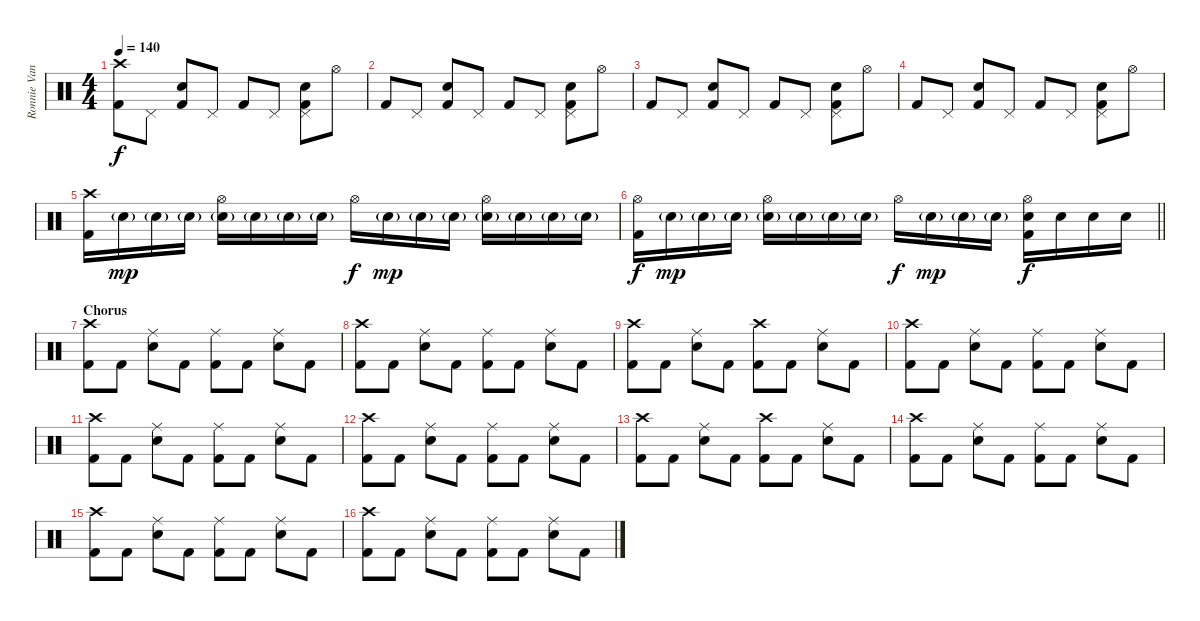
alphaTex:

\track ("Ronnie Vannucci Jr.'s drums" "Ronnie Van") {instrument percussion}
\staff {score}
\articulation defaults
\ts (4 4)
\tempo 140
\clef neutral
\ks c
("Crash high (hit)" "Kick (hit) 2").8{dy f} "Pedal Hi-Hat (hit)".8 ("Kick (hit) 2" "Electric Snare (hit)").8 "Pedal Hi-Hat (hit)".8 "Kick (hit) 2".8 "Pedal Hi-Hat (hit)".8 ("Pedal Hi-Hat (hit)" "Kick (hit) 2" "Electric Snare (hit)").8 "Hi-Hat (open)".8 |
"Kick (hit) 2".8 "Pedal Hi-Hat (hit)".8 ("Kick (hit) 2" "Electric Snare (hit)").8 "Pedal Hi-Hat (hit)".8 "Kick (hit) 2".8 "Pedal Hi-Hat (hit)".8 ("Pedal Hi-Hat (hit)" "Kick (hit) 2" "Electric Snare (hit)").8 "Hi-Hat (open)".8 |
"Kick (hit) 2".8 "Pedal Hi-Hat (hit)".8 ("Kick (hit) 2" "Electric Snare (hit)").8 "Pedal Hi-Hat (hit)".8 "Kick (hit) 2".8 "Pedal Hi-Hat (hit)".8 ("Pedal Hi-Hat (hit)" "Kick (hit) 2" "Electric Snare (hit)").8 "Hi-Hat (open)".8 |
"Kick (hit) 2".8 "Pedal Hi-Hat (hit)".8 ("Kick (hit) 2" "Electric Snare (hit)").8 "Pedal Hi-Hat (hit)".8 "Kick (hit) 2".8 "Pedal Hi-Hat (hit)".8 ("Pedal Hi-Hat (hit)" "Kick (hit) 2" "Electric Snare (hit)").8 "Hi-Hat (open)".8 |
("Crash high (hit)" "Kick (hit) 2").16 "Electric Snare (hit)"{g}.16{dy mp} "Electric Snare (hit)"{g}.16 "Electric Snare (hit)"{g}.16 ("Hi-Hat (open)" "Electric Snare (hit)"{g}).16 "Electric Snare (hit)"{g}.16 "Electric Snare (hit)"{g}.16 "Electric Snare (hit)"{g}.16 "Hi-Hat (open)".16{dy f} "Electric Snare (hit)"{g}.16{dy mp} "Electric Snare (hit)"{g}.16 "Electric Snare (hit)"{g}.16 ("Hi-Hat (open)" "Electric Snare (hit)"{g}).16 "Electric Snare (hit)"{g}.16 "Electric Snare (hit)"{g}.16 "Electric Snare (hit)"{g}.16 |
\barLineRight lightlight
("Hi-Hat (open)" "Kick (hit) 2").16{dy f} "Electric Snare (hit)"{g}.16{dy mp} "Electric Snare (hit)"{g}.16 "Electric Snare (hit)"{g}.16 ("Hi-Hat (open)" "Electric Snare (hit)"{g}).16 "Electric Snare (hit)"{g}.16 "Electric Snare (hit)"{g}.16 "Electric Snare (hit)"{g}.16 "Hi-Hat (open)".16{dy f} "Electric Snare (hit)"{g}.16{dy mp} "Electric Snare (hit)"{g}.16 "Electric Snare (hit)"{g}.16 ("Hi-Hat (open)" "Electric Snare (hit)" "Kick (hit) 2").16{dy f} "Electric Snare (hit)".16 "Electric Snare (hit)".16 "Electric Snare (hit)".16 |
\section ("" "Chorus")
("Crash high (hit)" "Kick (hit) 2").8 "Kick (hit) 2".8 ("Electric Snare (hit)" "Ride (middle)").8 "Kick (hit) 2".8 ("Ride (middle)" "Kick (hit) 2").8 "Kick (hit) 2".8 ("Electric Snare (hit)" "Ride (middle)").8 "Kick (hit) 2".8 |
("Crash high (hit)" "Kick (hit) 2").8 "Kick (hit) 2".8 ("Electric Snare (hit)" "Ride (middle)").8 "Kick (hit) 2".8 ("Ride (middle)" "Kick (hit) 2").8 "Kick (hit) 2".8 ("Electric Snare (hit)" "Ride (middle)").8 "Kick (hit) 2".8 |
("Crash high (hit)" "Kick (hit) 2").8 "Kick (hit) 2".8 ("Electric Snare (hit)" "Ride (middle)").8 "Kick (hit) 2".8 ("Crash high (hit)" "Kick (hit) 2").8 "Kick (hit) 2".8 ("Electric Snare (hit)" "Ride (middle)").8 "Kick (hit) 2".8 |
("Crash high (hit)" "Kick (hit) 2").8 "Kick (hit) 2".8 ("Electric Snare (hit)" "Ride (middle)").8 "Kick (hit) 2".8 ("Ride (middle)" "Kick (hit) 2").8 "Kick (hit) 2".8 ("Electric Snare (hit)" "Ride (middle)").8 "Kick (hit) 2".8 |
("Crash high (hit)" "Kick (hit) 2").8 "Kick (hit) 2".8 ("Electric Snare (hit)" "Ride (middle)").8 "Kick (hit) 2".8 ("Ride (middle)" "Kick (hit) 2").8 "Kick (hit) 2".8 ("Electric Snare (hit)" "Ride (middle)").8 "Kick (hit) 2".8 |
("Crash high (hit)" "Kick (hit) 2").8 "Kick (hit) 2".8 ("Electric Snare (hit)" "Ride (middle)").8 "Kick (hit) 2".8 ("Ride (middle)" "Kick (hit) 2").8 "Kick (hit) 2".8 ("Electric Snare (hit)" "Ride (middle)").8 "Kick (hit) 2".8 |
("Crash high (hit)" "Kick (hit) 2").8 "Kick (hit) 2".8 ("Electric Snare (hit)" "Ride (middle)").8 "Kick (hit) 2".8 ("Crash high (hit)" "Kick (hit) 2").8 "Kick (hit) 2".8 ("Electric Snare (hit)" "Ride (middle)").8 "Kick (hit) 2".8 |
("Crash high (hit)" "Kick (hit) 2").8 "Kick (hit) 2".8 ("Electric Snare (hit)" "Ride (middle)").8 "Kick (hit) 2".8 ("Ride (middle)" "Kick (hit) 2").8 "Kick (hit) 2".8 ("Electric Snare (hit)" "Ride (middle)").8 "Kick (hit) 2".8 |
("Crash high (hit)" "Kick (hit) 2").8 "Kick (hit) 2".8 ("Electric Snare (hit)" "Ride (middle)").8 "Kick (hit) 2".8 ("Ride (middle)" "Kick (hit) 2").8 "Kick (hit) 2".8 ("Electric Snare (hit)" "Ride (middle)").8 "Kick (hit) 2".8 |
("Crash high (hit)" "Kick (hit) 2").8 "Kick (hit) 2".8 ("Electric Snare (hit)" "Ride (middle)").8 "Kick (hit) 2".8 ("Ride (middle)" "Kick (hit) 2").8 "Kick (hit) 2".8 ("Electric Snare (hit)" "Ride (middle)").8 "Kick (hit) 2".8
